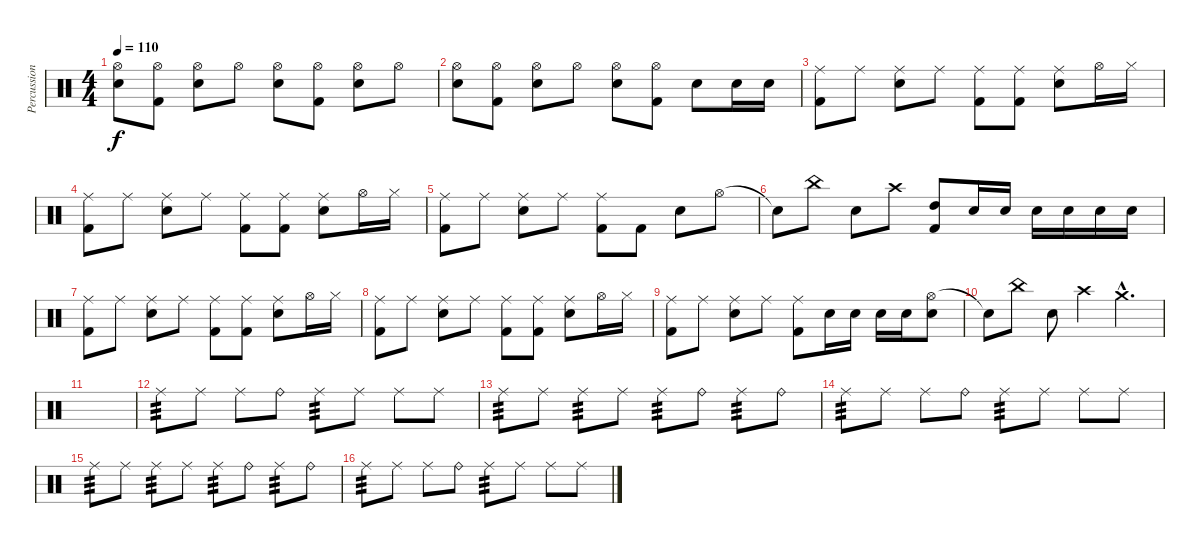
\track ("Percussion" "Percussion") {instrument percussion}
\staff {score}
\articulation defaults
\ts (4 4)
\tempo 110
\clef neutral
\ks c
("Hi-Hat (open)" "Snare (hit) 2").8{dy f} ("Hi-Hat (open)" "Kick (hit) 2").8 ("Hi-Hat (open)" "Snare (hit) 2").8 "Hi-Hat (open)".8 ("Hi-Hat (open)" "Snare (hit) 2").8 ("Hi-Hat (open)" "Kick (hit) 2").8 ("Hi-Hat (open)" "Snare (hit) 2").8 "Hi-Hat (open)".8 |
("Hi-Hat (open)" "Snare (hit) 2").8 ("Hi-Hat (open)" "Kick (hit) 2").8 ("Hi-Hat (open)" "Snare (hit) 2").8 "Hi-Hat (open)".8 ("Hi-Hat (open)" "Snare (hit) 2").8 ("Hi-Hat (open)" "Kick (hit) 2").8 "Snare (hit) 2".8 "Snare (hit) 2".16 "Snare (hit) 2".16 |
("Ride (middle)" "Kick (hit) 2").8 "Ride (middle)".8 ("Ride (middle)" "Snare (hit) 2").8 "Ride (middle)".8 ("Ride (middle)" "Kick (hit) 2").8 ("Ride (middle)" "Kick (hit) 2").8 ("Ride (middle)" "Snare (hit) 2").8 "Hi-Hat (open)".16 "Hi-Hat (closed)".16 |
("Ride (middle)" "Kick (hit) 2").8 "Ride (middle)".8 ("Ride (middle)" "Snare (hit) 2").8 "Ride (middle)".8 ("Ride (middle)" "Kick (hit) 2").8 ("Ride (middle)" "Kick (hit) 2").8 ("Ride (middle)" "Snare (hit) 2").8 "Hi-Hat (open)".16 "Hi-Hat (closed)".16 |
("Ride (middle)" "Kick (hit) 2").8 "Ride (middle)".8 ("Ride (middle)" "Snare (hit) 2").8 "Ride (middle)".8 ("Ride (middle)" "Kick (hit) 2").8 "Kick (hit) 2".8 "Snare (hit) 2".8 "Hi-Hat (open)".8 |
"Snare (hit)"{t}.8 "China (hit)".8 "Snare (hit) 2".8 "Crash high (hit)".8 ("High Tom (hit)" "Kick (hit) 2").8 "Snare (hit) 2".16 "Snare (hit) 2".16 "Snare (hit) 2".16 "Snare (hit) 2".16 "Snare (hit) 2".16 "Snare (hit) 2".16 |
("Ride (middle)" "Kick (hit) 2").8 "Ride (middle)".8 ("Ride (middle)" "Snare (hit) 2").8 "Ride (middle)".8 ("Ride (middle)" "Kick (hit) 2").8 ("Ride (middle)" "Kick (hit) 2").8 ("Ride (middle)" "Snare (hit) 2").8 "Hi-Hat (open)".16 "Hi-Hat (closed)".16 |
("Ride (middle)" "Kick (hit) 2").8 "Ride (middle)".8 ("Ride (middle)" "Snare (hit) 2").8 "Ride (middle)".8 ("Ride (middle)" "Kick (hit) 2").8 ("Ride (middle)" "Kick (hit) 2").8 ("Ride (middle)" "Snare (hit) 2").8 "Hi-Hat (open)".16 "Hi-Hat (closed)".16 |
("Ride (middle)" "Kick (hit) 2").8 "Ride (middle)".8 ("Ride (middle)" "Snare (hit) 2").8 "Ride (middle)".8 ("Ride (middle)" "Kick (hit) 2").8 "Snare (hit) 2".16 "Snare (hit) 2".16 "Snare (hit) 2".16 "Snare (hit) 2".16 ("Hi-Hat (open)" "Snare (hit) 2").8 |
"Snare (hit)"{t}.8 "China (hit)".8 "Snare (hit) 2".8 "Crash high (hit)".4 "Crash medium (hit)"{hac}.4{d} |
|
"Ride (middle)".8{tp 3} "Ride (middle)".8 "Ride (middle)".8 "Ride (bell)".8 "Ride (middle)".8{tp 3} "Ride (middle)".8 "Ride (middle)".8 "Ride (middle)".8 |
"Ride (middle)".8{tp 3} "Ride (middle)".8 "Ride (middle)".8{tp 3} "Ride (middle)".8 "Ride (middle)".8{tp 3} "Ride (bell)".8 "Ride (middle)".8{tp 3} "Ride (bell)".8 |
"Ride (middle)".8{tp 3} "Ride (middle)".8 "Ride (middle)".8 "Ride (bell)".8 "Ride (middle)".8{tp 3} "Ride (middle)".8 "Ride (middle)".8 "Ride (middle)".8 |
"Ride (middle)".8{tp 3} "Ride (middle)".8 "Ride (middle)".8{tp 3} "Ride (middle)".8 "Ride (middle)".8{tp 3} "Ride (bell)".8 "Ride (middle)".8{tp 3} "Ride (bell)".8 |
"Ride (middle)".8{tp 3} "Ride (middle)".8 "Ride (middle)".8 "Ride (bell)".8 "Ride (middle)".8{tp 3} "Ride (middle)".8 "Ride (middle)".8 "Ride (middle)".8
